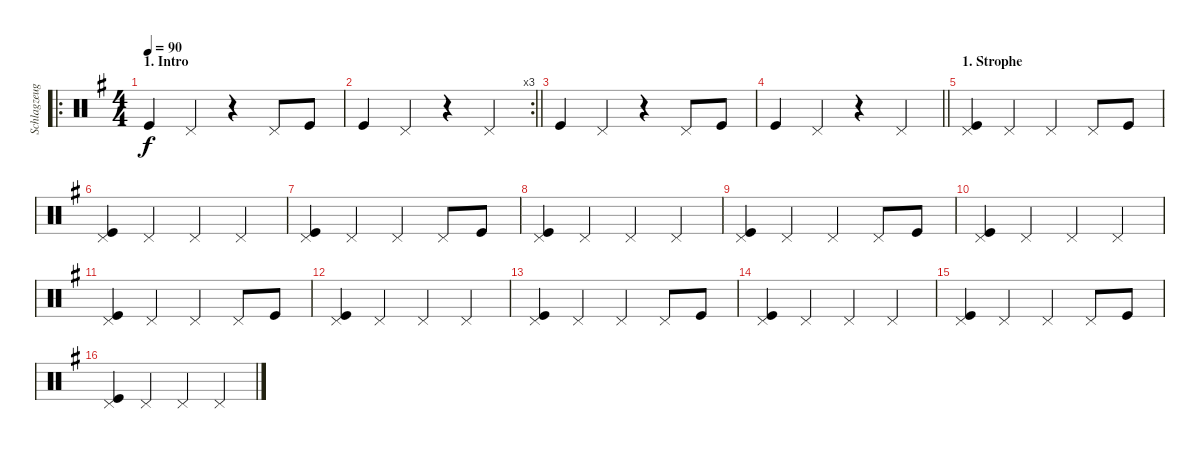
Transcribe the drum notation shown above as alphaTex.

\track ("Schlagzeug" "Schlagzeug") {instrument percussion}
\staff {score}
\articulation defaults
\ro
\ts (4 4)
\section ("" "1. Intro")
\tempo 90
\clef neutral
\ks g "Kick (hit)".4{dy f} "Pedal Hi-Hat (hit)".4
r.4 "Pedal Hi-Hat (hit)".8 "Kick (hit)".8 |
\rc 3
\barLineRight lightlight "Kick (hit)".4 "Pedal Hi-Hat (hit)".4
r.4 "Pedal Hi-Hat (hit)".4 |
"Kick (hit)".4 "Pedal Hi-Hat (hit)".4 r.4 "Pedal Hi-Hat (hit)".8 "Kick (hit)".8 |
\barLineRight lightlight "Kick (hit)".4 "Pedal Hi-Hat (hit)".4
r.4 "Pedal Hi-Hat (hit)".4 |
\section ("" "1. Strophe")
("Pedal Hi-Hat (hit)" "Kick (hit)").4 "Pedal Hi-Hat (hit)".4 "Pedal Hi-Hat (hit)".4 "Pedal Hi-Hat (hit)".8 "Kick (hit)".8 |
("Pedal Hi-Hat (hit)" "Kick (hit)").4 "Pedal Hi-Hat (hit)".4 "Pedal Hi-Hat (hit)".4 "Pedal Hi-Hat (hit)".4 |
("Pedal Hi-Hat (hit)" "Kick (hit)").4 "Pedal Hi-Hat (hit)".4 "Pedal Hi-Hat (hit)".4 "Pedal Hi-Hat (hit)".8 "Kick (hit)".8 |
("Pedal Hi-Hat (hit)" "Kick (hit)").4 "Pedal Hi-Hat (hit)".4 "Pedal Hi-Hat (hit)".4 "Pedal Hi-Hat (hit)".4 |
("Pedal Hi-Hat (hit)" "Kick (hit)").4 "Pedal Hi-Hat (hit)".4 "Pedal Hi-Hat (hit)".4 "Pedal Hi-Hat (hit)".8 "Kick (hit)".8 |
("Pedal Hi-Hat (hit)" "Kick (hit)").4 "Pedal Hi-Hat (hit)".4 "Pedal Hi-Hat (hit)".4 "Pedal Hi-Hat (hit)".4 |
("Pedal Hi-Hat (hit)" "Kick (hit)").4 "Pedal Hi-Hat (hit)".4 "Pedal Hi-Hat (hit)".4 "Pedal Hi-Hat (hit)".8 "Kick (hit)".8 |
("Pedal Hi-Hat (hit)" "Kick (hit)").4 "Pedal Hi-Hat (hit)".4 "Pedal Hi-Hat (hit)".4 "Pedal Hi-Hat (hit)".4 |
("Pedal Hi-Hat (hit)" "Kick (hit)").4 "Pedal Hi-Hat (hit)".4 "Pedal Hi-Hat (hit)".4 "Pedal Hi-Hat (hit)".8 "Kick (hit)".8 |
("Pedal Hi-Hat (hit)" "Kick (hit)").4 "Pedal Hi-Hat (hit)".4 "Pedal Hi-Hat (hit)".4 "Pedal Hi-Hat (hit)".4 |
("Pedal Hi-Hat (hit)" "Kick (hit)").4 "Pedal Hi-Hat (hit)".4 "Pedal Hi-Hat (hit)".4 "Pedal Hi-Hat (hit)".8 "Kick (hit)".8 |
("Pedal Hi-Hat (hit)" "Kick (hit)").4 "Pedal Hi-Hat (hit)".4 "Pedal Hi-Hat (hit)".4 "Pedal Hi-Hat (hit)".4
